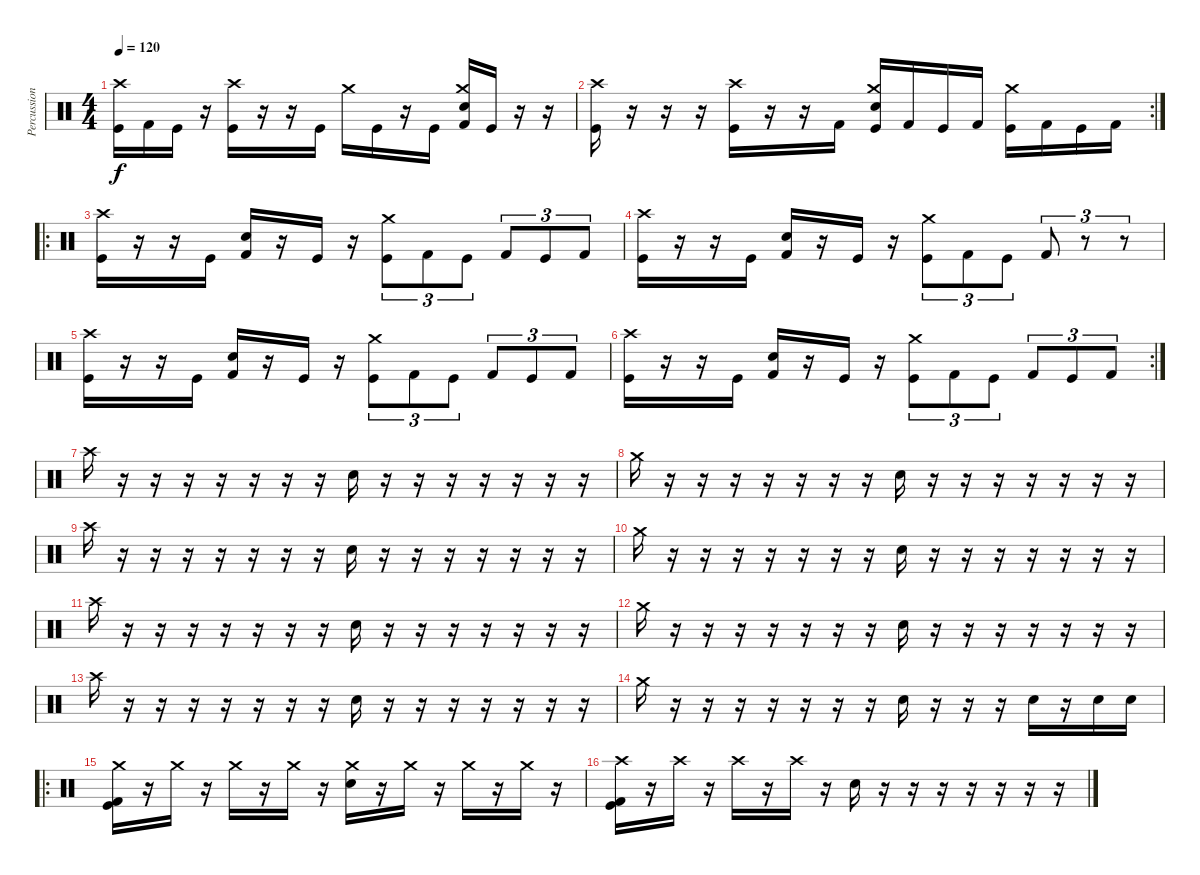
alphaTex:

\track ("Percussion" "Percussion") {instrument percussion}
\staff {score}
\articulation defaults
\ts (4 4)
\tempo 120
\clef neutral
\ks c
("Crash high (hit)" "Kick (hit)").16{dy f} "Kick (hit) 2".16 "Kick (hit)".16 r.16 ("Crash high (hit)" "Kick (hit)").16 r.16 r.16 "Kick (hit)".16 "Crash medium (hit)".16 "Kick (hit)".16 r.16 "Kick (hit)".16 ("Crash medium (hit)" "Snare (hit) 2" "Kick (hit) 2").16 "Kick (hit)".16 r.16 r.16 |
\rc 2
("Crash high (hit)" "Kick (hit)").16 r.16 r.16 r.16 ("Crash high (hit)" "Kick (hit)").16 r.16 r.16 "Kick (hit) 2".16 ("Crash medium (hit)" "Snare (hit) 2" "Kick (hit)").16 "Kick (hit) 2".16 "Kick (hit)".16 "Kick (hit) 2".16 ("Crash medium (hit)" "Kick (hit)").16 "Kick (hit) 2".16 "Kick (hit)".16 "Kick (hit) 2".16 |
\ro
("Crash high (hit)" "Kick (hit)").16 r.16 r.16 "Kick (hit)".16 ("Snare (hit) 2" "Kick (hit) 2").16 r.16 "Kick (hit)".16 r.16 ("Crash medium (hit)" "Kick (hit)").8{tu (3 2)} "Kick (hit) 2".8{tu (3 2)} "Kick (hit)".8{tu (3 2)} "Kick (hit) 2".8{tu (3 2)} "Kick (hit)".8{tu (3 2)} "Kick (hit) 2".8{tu (3 2)} |
("Crash high (hit)" "Kick (hit)").16 r.16 r.16 "Kick (hit)".16 ("Snare (hit) 2" "Kick (hit) 2").16 r.16 "Kick (hit)".16 r.16 ("Crash medium (hit)" "Kick (hit)").8{tu (3 2)} "Kick (hit) 2".8{tu (3 2)} "Kick (hit)".8{tu (3 2)} "Kick (hit) 2".8{tu (3 2)} r.8{tu (3 2)} r.8{tu (3 2)} |
("Crash high (hit)" "Kick (hit)").16 r.16 r.16 "Kick (hit)".16 ("Snare (hit) 2" "Kick (hit) 2").16 r.16 "Kick (hit)".16 r.16 ("Crash medium (hit)" "Kick (hit)").8{tu (3 2)} "Kick (hit) 2".8{tu (3 2)} "Kick (hit)".8{tu (3 2)} "Kick (hit) 2".8{tu (3 2)} "Kick (hit)".8{tu (3 2)} "Kick (hit) 2".8{tu (3 2)} |
\rc 2
("Crash high (hit)" "Kick (hit)").16 r.16 r.16 "Kick (hit)".16 ("Snare (hit) 2" "Kick (hit) 2").16 r.16 "Kick (hit)".16 r.16 ("Crash medium (hit)" "Kick (hit)").8{tu (3 2)} "Kick (hit) 2".8{tu (3 2)} "Kick (hit)".8{tu (3 2)} "Kick (hit) 2".8{tu (3 2)} "Kick (hit)".8{tu (3 2)} "Kick (hit) 2".8{tu (3 2)} |
"Crash high (hit)".16 r.16 r.16 r.16 r.16 r.16 r.16 r.16 "Snare (hit) 2".16 r.16 r.16 r.16 r.16 r.16 r.16 r.16 |
"Crash medium (hit)".16 r.16 r.16 r.16 r.16 r.16 r.16 r.16 "Snare (hit) 2".16 r.16 r.16 r.16 r.16 r.16 r.16 r.16 |
"Crash high (hit)".16 r.16 r.16 r.16 r.16 r.16 r.16 r.16 "Snare (hit) 2".16 r.16 r.16 r.16 r.16 r.16 r.16 r.16 |
"Crash medium (hit)".16 r.16 r.16 r.16 r.16 r.16 r.16 r.16 "Snare (hit) 2".16 r.16 r.16 r.16 r.16 r.16 r.16 r.16 |
"Crash high (hit)".16 r.16 r.16 r.16 r.16 r.16 r.16 r.16 "Snare (hit) 2".16 r.16 r.16 r.16 r.16 r.16 r.16 r.16 |
"Crash medium (hit)".16 r.16 r.16 r.16 r.16 r.16 r.16 r.16 "Snare (hit) 2".16 r.16 r.16 r.16 r.16 r.16 r.16 r.16 |
"Crash high (hit)".16 r.16 r.16 r.16 r.16 r.16 r.16 r.16 "Snare (hit) 2".16 r.16 r.16 r.16 r.16 r.16 r.16 r.16 |
"Crash medium (hit)".16 r.16 r.16 r.16 r.16 r.16 r.16 r.16 "Snare (hit) 2".16 r.16 r.16 r.16 "Snare (hit) 2".16 r.16 "Snare (hit) 2".16 "Snare (hit) 2".16 |
\ro
("Crash medium (hit)" "Kick (hit) 2" "Kick (hit)").16 r.16 "Crash medium (hit)".16 r.16 "Crash medium (hit)".16 r.16 "Crash medium (hit)".16 r.16 ("Crash medium (hit)" "Snare (hit) 2").16 r.16 "Crash medium (hit)".16 r.16 "Crash medium (hit)".16 r.16 "Crash medium (hit)".16 r.16 |
("Crash high (hit)" "Kick (hit) 2" "Kick (hit)").16 r.16 "Crash high (hit)".16 r.16 "Crash high (hit)".16 r.16 "Crash high (hit)".16 r.16 "Snare (hit) 2".16 r.16 r.16 r.16 r.16 r.16 r.16 r.16
